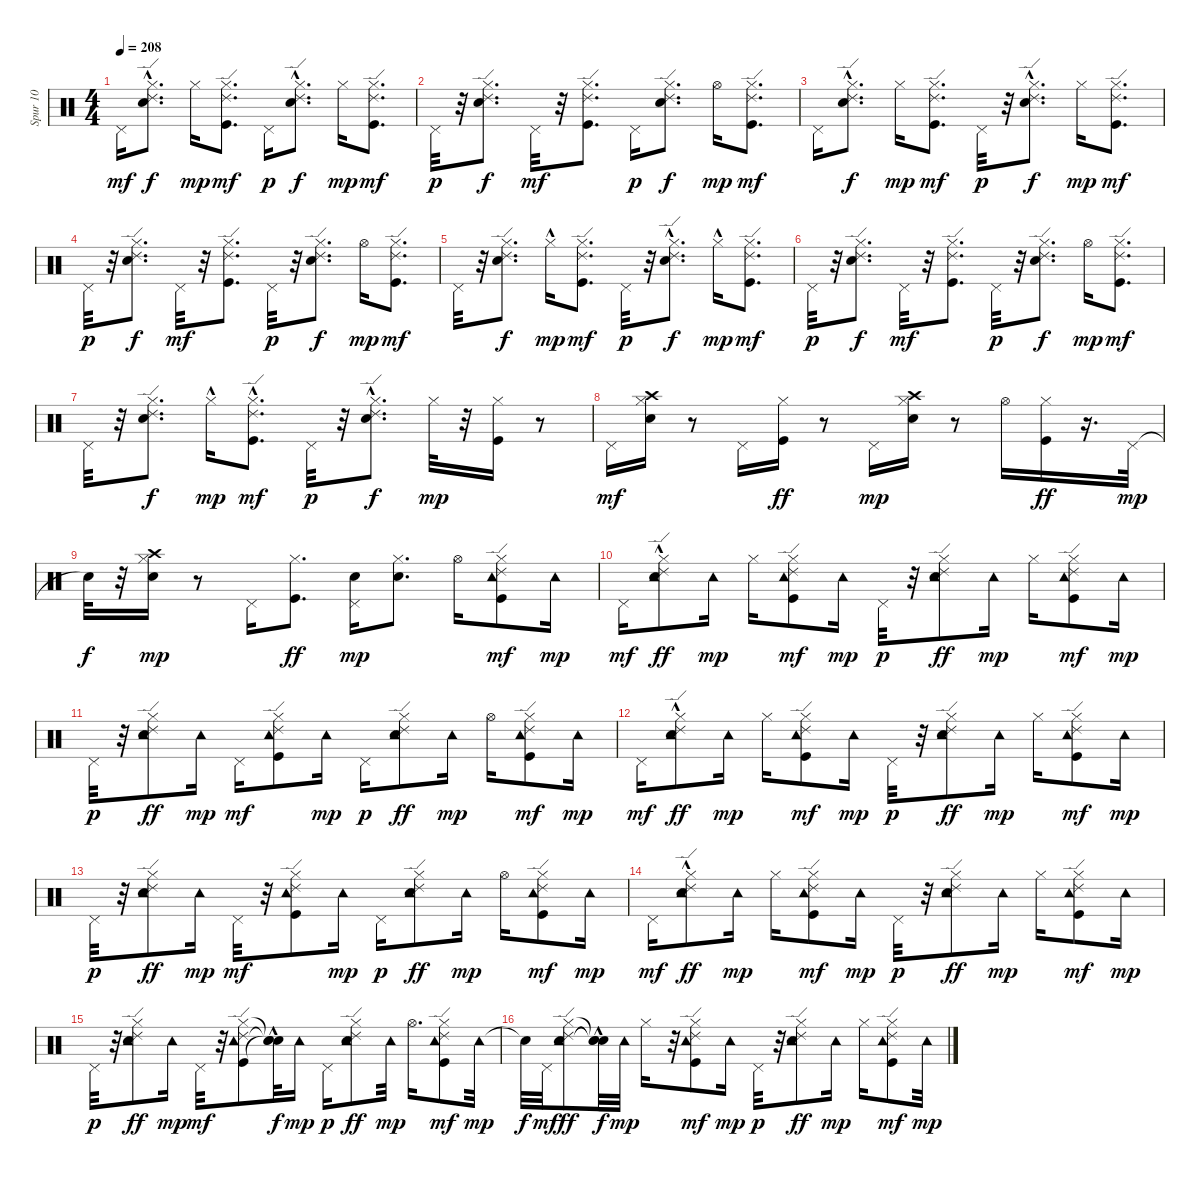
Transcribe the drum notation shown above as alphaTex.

\track ("Spur 10" "Spur 10") {instrument percussion}
\staff {score}
\articulation defaults
\ts (4 4)
\tempo 208
\clef neutral
\ks c "Pedal Hi-Hat (hit)".16{dy mf}
("Hi-Hat (closed)"{hac} "Snare (hit) 2" "Ride (edge) 2").8{d dy f} "Hi-Hat (closed)".16{dy mp} ("Hi-Hat (closed)" "Kick (hit)" "Ride (edge) 2").8{d dy mf} "Pedal Hi-Hat (hit)".16{dy p} ("Hi-Hat (closed)"{hac} "Snare (hit) 2" "Ride (edge) 2").8{d dy f} "Hi-Hat (closed)".16{dy mp} ("Hi-Hat (closed)" "Kick (hit)" "Ride (edge) 2").8{d dy mf} |
"Pedal Hi-Hat (hit)".32{dy p} r.32 ("Hi-Hat (closed)" "Snare (hit) 2" "Ride (edge) 2").8{d dy f} "Pedal Hi-Hat (hit)".32{dy mf} r.32 ("Hi-Hat (closed)" "Kick (hit)" "Ride (edge) 2").8{d} "Pedal Hi-Hat (hit)".16{dy p} ("Hi-Hat (closed)" "Snare (hit) 2" "Ride (edge) 2").8{d dy f} "Hi-Hat (open)".16{dy mp} ("Hi-Hat (closed)" "Kick (hit)" "Ride (edge) 2").8{d dy mf} |
"Pedal Hi-Hat (hit)".16 ("Hi-Hat (closed)"{hac} "Snare (hit) 2" "Ride (edge) 2").8{d dy f} "Hi-Hat (closed)".16{dy mp} ("Hi-Hat (closed)" "Kick (hit)" "Ride (edge) 2").8{d dy mf} "Pedal Hi-Hat (hit)".32{dy p} r.32 ("Hi-Hat (closed)"{hac} "Snare (hit) 2" "Ride (edge) 2").8{d dy f} "Hi-Hat (closed)".16{dy mp} ("Hi-Hat (closed)" "Kick (hit)" "Ride (edge) 2").8{d dy mf} |
"Pedal Hi-Hat (hit)".32{dy p} r.32 ("Hi-Hat (closed)" "Snare (hit) 2" "Ride (edge) 2").8{d dy f} "Pedal Hi-Hat (hit)".32{dy mf} r.32 ("Hi-Hat (closed)" "Kick (hit)" "Ride (edge) 2").8{d} "Pedal Hi-Hat (hit)".32{dy p} r.32 ("Hi-Hat (closed)" "Snare (hit) 2" "Ride (edge) 2").8{d dy f} "Hi-Hat (open)".16{dy mp} ("Hi-Hat (closed)" "Kick (hit)" "Ride (edge) 2").8{d dy mf} |
"Pedal Hi-Hat (hit)".32 r.32 ("Hi-Hat (closed)" "Snare (hit) 2" "Ride (edge) 2").8{d dy f} "Hi-Hat (closed)"{hac}.16{dy mp} ("Hi-Hat (closed)" "Kick (hit)" "Ride (edge) 2").8{d dy mf} "Pedal Hi-Hat (hit)".32{dy p} r.32 ("Hi-Hat (closed)"{hac} "Snare (hit) 2" "Ride (edge) 2").8{d dy f} "Hi-Hat (closed)"{hac}.16{dy mp} ("Hi-Hat (closed)" "Kick (hit)" "Ride (edge) 2").8{d dy mf} |
"Pedal Hi-Hat (hit)".32{dy p} r.32 ("Hi-Hat (closed)" "Snare (hit) 2" "Ride (edge) 2").8{d dy f} "Pedal Hi-Hat (hit)".32{dy mf} r.32 ("Hi-Hat (closed)" "Kick (hit)" "Ride (edge) 2").8{d} "Pedal Hi-Hat (hit)".32{dy p} r.32 ("Hi-Hat (closed)" "Snare (hit) 2" "Ride (edge) 2").8{d dy f} "Hi-Hat (open)".16{dy mp} ("Hi-Hat (closed)" "Kick (hit)" "Ride (edge) 2").8{d dy mf} |
"Pedal Hi-Hat (hit)".32 r.32 ("Hi-Hat (closed)" "Snare (hit) 2" "Ride (edge) 2").8{d dy f} "Hi-Hat (closed)"{hac}.16{dy mp} ("Hi-Hat (closed)" "Kick (hit)"{hac} "Ride (edge) 2").8{d dy mf} "Pedal Hi-Hat (hit)".32{dy p} r.32 ("Hi-Hat (closed)"{hac} "Snare (hit) 2"{hac} "Ride (edge) 2").8{d dy f} "Hi-Hat (closed)".32{dy mp} r.32 ("Kick (hit)" "Hi-Hat (closed)").16 r.8 |
"Pedal Hi-Hat (hit)".16{dy mf} ("Hi-Hat (closed)" "Crash high (hit)" "Snare (hit) 2").16 r.8 "Pedal Hi-Hat (hit)".16 ("Hi-Hat (closed)" "Kick (hit)").16{dy ff} r.8 "Pedal Hi-Hat (hit)".16{dy mp} ("Crash high (hit)" "Hi-Hat (closed)" "Snare (hit) 2").16 r.8 "Hi-Hat (open)".16 ("Hi-Hat (closed)" "Kick (hit)").16{dy ff} r.16{d} "Pedal Hi-Hat (hit)".32{dy mp} |
"Snare (hit)"{t}.32{dy f} r.32 ("Crash high (hit)" "Hi-Hat (closed)" "Snare (hit) 2").16{dy mp} r.8 "Pedal Hi-Hat (hit)".16 ("Hi-Hat (closed)" "Kick (hit)").8{d dy ff} ("Pedal Hi-Hat (hit)" "Snare (hit) 2").16{dy mp} ("Hi-Hat (closed)" "Snare (hit) 2").8{d} "Hi-Hat (open)".16 ("Tambourine (hit)" "Hi-Hat (closed)" "Kick (hit)" "Ride (edge) 2").8{dy mf} "Tambourine (hit)".16{dy mp} |
"Pedal Hi-Hat (hit)".16{dy mf} ("Tambourine (hit)" "Hi-Hat (closed)"{hac} "Electric Snare (hit)" "Ride (edge) 2").8{dy ff} "Tambourine (hit)".16{dy mp} "Hi-Hat (closed)".16 ("Tambourine (hit)" "Hi-Hat (closed)" "Kick (hit)" "Ride (edge) 2").8{dy mf} "Tambourine (hit)".16{dy mp} "Pedal Hi-Hat (hit)".32{dy p} r.32 ("Tambourine (hit)" "Hi-Hat (closed)" "Electric Snare (hit)" "Ride (edge) 2").8{dy ff} "Tambourine (hit)".16{dy mp} "Hi-Hat (closed)".16 ("Tambourine (hit)" "Hi-Hat (closed)" "Kick (hit)" "Ride (edge) 2").8{dy mf} "Tambourine (hit)".16{dy mp} |
"Pedal Hi-Hat (hit)".32{dy p} r.32 ("Tambourine (hit)" "Hi-Hat (closed)" "Electric Snare (hit)" "Ride (edge) 2").8{dy ff} "Tambourine (hit)".16{dy mp} "Pedal Hi-Hat (hit)".16{dy mf} ("Tambourine (hit)" "Hi-Hat (closed)" "Kick (hit)" "Ride (edge) 2").8 "Tambourine (hit)".16{dy mp} "Pedal Hi-Hat (hit)".16{dy p} ("Tambourine (hit)" "Hi-Hat (closed)" "Electric Snare (hit)" "Ride (edge) 2").8{dy ff} "Tambourine (hit)".16{dy mp} "Hi-Hat (open)".16 ("Tambourine (hit)" "Hi-Hat (closed)" "Kick (hit)" "Ride (edge) 2").8{dy mf} "Tambourine (hit)".16{dy mp} |
"Pedal Hi-Hat (hit)".16{dy mf} ("Tambourine (hit)" "Hi-Hat (closed)"{hac} "Electric Snare (hit)" "Ride (edge) 2").8{dy ff} "Tambourine (hit)".16{dy mp} "Hi-Hat (closed)".16 ("Tambourine (hit)" "Hi-Hat (closed)" "Kick (hit)" "Ride (edge) 2").8{dy mf} "Tambourine (hit)".16{dy mp} "Pedal Hi-Hat (hit)".32{dy p} r.32 ("Tambourine (hit)" "Hi-Hat (closed)" "Electric Snare (hit)" "Ride (edge) 2").8{dy ff} "Tambourine (hit)".16{dy mp} "Hi-Hat (closed)".16 ("Tambourine (hit)" "Hi-Hat (closed)" "Kick (hit)" "Ride (edge) 2").8{dy mf} "Tambourine (hit)".16{dy mp} |
"Pedal Hi-Hat (hit)".32{dy p} r.32 ("Tambourine (hit)" "Hi-Hat (closed)" "Electric Snare (hit)" "Ride (edge) 2").8{dy ff} "Tambourine (hit)".16{dy mp} "Pedal Hi-Hat (hit)".32{dy mf} r.32 ("Tambourine (hit)" "Hi-Hat (closed)" "Kick (hit)" "Ride (edge) 2").8 "Tambourine (hit)".16{dy mp} "Pedal Hi-Hat (hit)".16{dy p} ("Tambourine (hit)" "Hi-Hat (closed)" "Electric Snare (hit)" "Ride (edge) 2").8{dy ff} "Tambourine (hit)".16{dy mp} "Hi-Hat (open)".16 ("Tambourine (hit)" "Hi-Hat (closed)" "Kick (hit)" "Ride (edge) 2").8{dy mf} "Tambourine (hit)".16{dy mp} |
"Pedal Hi-Hat (hit)".16{dy mf} ("Tambourine (hit)" "Hi-Hat (closed)"{hac} "Electric Snare (hit)" "Ride (edge) 2").8{dy ff} "Tambourine (hit)".16{dy mp} "Hi-Hat (closed)".16 ("Tambourine (hit)" "Hi-Hat (closed)" "Kick (hit)" "Ride (edge) 2").8{dy mf} "Tambourine (hit)".16{dy mp} "Pedal Hi-Hat (hit)".32{dy p} r.32 ("Tambourine (hit)" "Hi-Hat (closed)" "Electric Snare (hit)" "Ride (edge) 2").8{dy ff} "Tambourine (hit)".16{dy mp} "Hi-Hat (closed)".16 ("Tambourine (hit)" "Hi-Hat (closed)" "Kick (hit)" "Ride (edge) 2").8{dy mf} "Tambourine (hit)".16{dy mp} |
"Pedal Hi-Hat (hit)".32{dy p} r.32 ("Tambourine (hit)" "Hi-Hat (closed)" "Electric Snare (hit)" "Ride (edge) 2").8{dy ff} "Tambourine (hit)".16{dy mp} "Pedal Hi-Hat (hit)".32{dy mf} r.32 ("Tambourine (hit)" "Hi-Hat (closed)" "Kick (hit)" "Ride (edge) 2").8 ("Snare (hit)"{t} "Snare (hit)"{hac t} "Snare (hit)"{t}).32{dy f} "Tambourine (hit)".16{dy mp} "Pedal Hi-Hat (hit)".16{dy p} ("Tambourine (hit)" "Hi-Hat (closed)" "Electric Snare (hit)" "Ride (edge) 2").8{dy ff} "Tambourine (hit)".32{dy mp} "Hi-Hat (open)".16{d} ("Tambourine (hit)" "Hi-Hat (closed)" "Kick (hit)" "Ride (edge) 2").8{dy mf} "Tambourine (hit)".32{dy mp} |
"Snare (hit)"{t}.32{dy f} "Pedal Hi-Hat (hit)".32{dy mf} ("Tambourine (hit)" "Hi-Hat (closed)" "Electric Snare (hit)" "Ride (edge) 2").8{dy ff} ("Snare (hit)"{t} "Snare (hit)"{hac t} "Snare (hit)"{t}).32{dy f} "Tambourine (hit)".32{dy mp} "Hi-Hat (closed)".16 r.32 ("Tambourine (hit)" "Hi-Hat (closed)" "Kick (hit)" "Ride (edge) 2").8{dy mf} "Tambourine (hit)".16{dy mp} "Pedal Hi-Hat (hit)".32{dy p} r.32 ("Tambourine (hit)" "Hi-Hat (closed)" "Electric Snare (hit)" "Ride (edge) 2").8{dy ff} "Tambourine (hit)".16{dy mp} "Hi-Hat (closed)".16 ("Tambourine (hit)" "Hi-Hat (closed)" "Kick (hit)" "Ride (edge) 2").8{dy mf} "Tambourine (hit)".32{dy mp}
